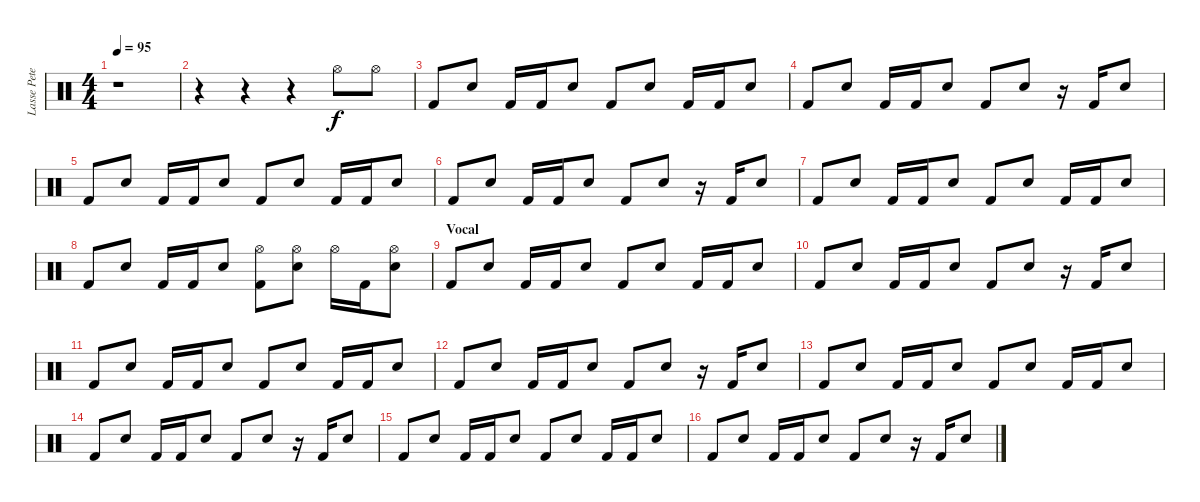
\track ("Lasse Peterson" "Lasse Pete") {instrument percussion}
\staff {score}
\articulation defaults
\ts (4 4)
\tempo 95
\clef neutral
\ks c
r.1{dy f} |
r.4 r.4 r.4 "Hi-Hat (open)".8 "Hi-Hat (open)".8 |
"Kick (hit) 2".8 "Electric Snare (hit)".8 "Kick (hit) 2".16 "Kick (hit) 2".16 "Electric Snare (hit)".8 "Kick (hit) 2".8 "Electric Snare (hit)".8 "Kick (hit) 2".16 "Kick (hit) 2".16 "Electric Snare (hit)".8 |
"Kick (hit) 2".8 "Electric Snare (hit)".8 "Kick (hit) 2".16 "Kick (hit) 2".16 "Electric Snare (hit)".8 "Kick (hit) 2".8 "Electric Snare (hit)".8 r.16 "Kick (hit) 2".16 "Electric Snare (hit)".8 |
"Kick (hit) 2".8 "Electric Snare (hit)".8 "Kick (hit) 2".16 "Kick (hit) 2".16 "Electric Snare (hit)".8 "Kick (hit) 2".8 "Electric Snare (hit)".8 "Kick (hit) 2".16 "Kick (hit) 2".16 "Electric Snare (hit)".8 |
"Kick (hit) 2".8 "Electric Snare (hit)".8 "Kick (hit) 2".16 "Kick (hit) 2".16 "Electric Snare (hit)".8 "Kick (hit) 2".8 "Electric Snare (hit)".8 r.16 "Kick (hit) 2".16 "Electric Snare (hit)".8 |
"Kick (hit) 2".8 "Electric Snare (hit)".8 "Kick (hit) 2".16 "Kick (hit) 2".16 "Electric Snare (hit)".8 "Kick (hit) 2".8 "Electric Snare (hit)".8 "Kick (hit) 2".16 "Kick (hit) 2".16 "Electric Snare (hit)".8 |
"Kick (hit) 2".8 "Electric Snare (hit)".8 "Kick (hit) 2".16 "Kick (hit) 2".16 "Electric Snare (hit)".8 ("Hi-Hat (open)" "Kick (hit) 2").8 ("Hi-Hat (open)" "Electric Snare (hit)").8 "Hi-Hat (open)".16 "Kick (hit) 2".16 ("Hi-Hat (open)" "Electric Snare (hit)").8 |
\section ("" "Vocal")
"Kick (hit) 2".8 "Electric Snare (hit)".8 "Kick (hit) 2".16 "Kick (hit) 2".16 "Electric Snare (hit)".8 "Kick (hit) 2".8 "Electric Snare (hit)".8 "Kick (hit) 2".16 "Kick (hit) 2".16 "Electric Snare (hit)".8 |
"Kick (hit) 2".8 "Electric Snare (hit)".8 "Kick (hit) 2".16 "Kick (hit) 2".16 "Electric Snare (hit)".8 "Kick (hit) 2".8 "Electric Snare (hit)".8 r.16 "Kick (hit) 2".16 "Electric Snare (hit)".8 |
"Kick (hit) 2".8 "Electric Snare (hit)".8 "Kick (hit) 2".16 "Kick (hit) 2".16 "Electric Snare (hit)".8 "Kick (hit) 2".8 "Electric Snare (hit)".8 "Kick (hit) 2".16 "Kick (hit) 2".16 "Electric Snare (hit)".8 |
"Kick (hit) 2".8 "Electric Snare (hit)".8 "Kick (hit) 2".16 "Kick (hit) 2".16 "Electric Snare (hit)".8 "Kick (hit) 2".8 "Electric Snare (hit)".8 r.16 "Kick (hit) 2".16 "Electric Snare (hit)".8 |
"Kick (hit) 2".8 "Electric Snare (hit)".8 "Kick (hit) 2".16 "Kick (hit) 2".16 "Electric Snare (hit)".8 "Kick (hit) 2".8 "Electric Snare (hit)".8 "Kick (hit) 2".16 "Kick (hit) 2".16 "Electric Snare (hit)".8 |
"Kick (hit) 2".8 "Electric Snare (hit)".8 "Kick (hit) 2".16 "Kick (hit) 2".16 "Electric Snare (hit)".8 "Kick (hit) 2".8 "Electric Snare (hit)".8 r.16 "Kick (hit) 2".16 "Electric Snare (hit)".8 |
"Kick (hit) 2".8 "Electric Snare (hit)".8 "Kick (hit) 2".16 "Kick (hit) 2".16 "Electric Snare (hit)".8 "Kick (hit) 2".8 "Electric Snare (hit)".8 "Kick (hit) 2".16 "Kick (hit) 2".16 "Electric Snare (hit)".8 |
"Kick (hit) 2".8 "Electric Snare (hit)".8 "Kick (hit) 2".16 "Kick (hit) 2".16 "Electric Snare (hit)".8 "Kick (hit) 2".8 "Electric Snare (hit)".8 r.16 "Kick (hit) 2".16 "Electric Snare (hit)".8
